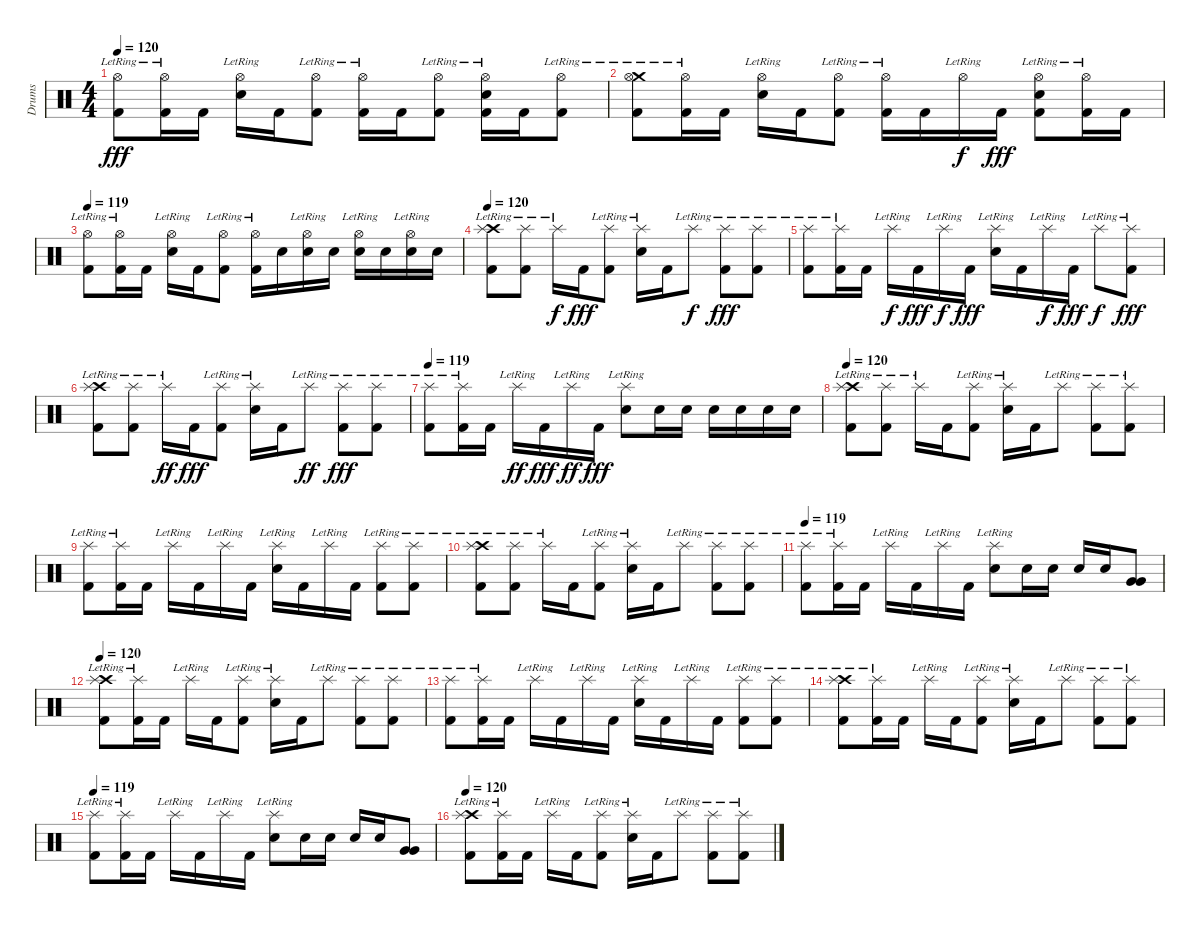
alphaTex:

\track ("Drums" "Drums") {instrument percussion}
\staff {score}
\articulation defaults
\ts (4 4)
\tempo 120
\clef neutral
\ks c
("Hi-Hat (open)"{lr} "Kick (hit) 2").8{dy fff} ("Hi-Hat (open)"{lr} "Kick (hit) 2").16 "Kick (hit) 2".16 ("Hi-Hat (open)"{lr} "Electric Snare (hit)").16 "Kick (hit) 2".16 ("Hi-Hat (open)"{lr} "Kick (hit) 2").8 ("Hi-Hat (open)"{lr} "Kick (hit) 2").16 "Kick (hit) 2".16 ("Hi-Hat (open)"{lr} "Kick (hit) 2").8 ("Hi-Hat (open)"{lr} "Electric Snare (hit)" "Kick (hit) 2").16 "Kick (hit) 2".16 ("Hi-Hat (open)"{lr} "Kick (hit) 2").8 |
("Crash medium (hit)"{lr} "Hi-Hat (open)"{lr} "Kick (hit) 2").8 ("Hi-Hat (open)"{lr} "Kick (hit) 2").16 "Kick (hit) 2".16 ("Hi-Hat (open)"{lr} "Electric Snare (hit)").16 "Kick (hit) 2".16 ("Hi-Hat (open)"{lr} "Kick (hit) 2").8 ("Hi-Hat (open)"{lr} "Kick (hit) 2").16 "Kick (hit) 2".16 "Hi-Hat (open)"{lr}.16{dy f} "Kick (hit) 2".16{dy fff} ("Hi-Hat (open)"{lr} "Electric Snare (hit)" "Kick (hit) 2").8 ("Hi-Hat (open)"{lr} "Kick (hit) 2").16 "Kick (hit) 2".16 |
\tempo 119
("Hi-Hat (open)"{lr} "Kick (hit) 2").8 ("Hi-Hat (open)"{lr} "Kick (hit) 2").16 "Kick (hit) 2".16 ("Hi-Hat (open)"{lr} "Electric Snare (hit)").16 "Kick (hit) 2".16 ("Hi-Hat (open)"{lr} "Kick (hit) 2").8 ("Hi-Hat (open)"{lr} "Kick (hit) 2").16 "Electric Snare (hit)".16 ("Hi-Hat (open)"{lr} "Electric Snare (hit)").16 "Electric Snare (hit)".16 ("Hi-Hat (open)"{lr} "Electric Snare (hit)").16 "Electric Snare (hit)".16 ("Hi-Hat (open)"{lr} "Electric Snare (hit)").16 "Electric Snare (hit)".16 |
\tempo 120
("Crash high (hit)"{lr} "Splash (hit)"{lr} "Kick (hit) 2").8 ("Splash (hit)"{lr} "Kick (hit) 2").8 "Splash (hit)"{lr}.16{dy f} "Kick (hit) 2".16{dy fff} ("Splash (hit)"{lr} "Kick (hit) 2").8 ("Splash (hit)"{lr} "Electric Snare (hit)").16 "Kick (hit) 2".16 "Splash (hit)"{lr}.8{dy f} ("Splash (hit)"{lr} "Kick (hit) 2").8{dy fff} ("Splash (hit)"{lr} "Kick (hit) 2").8 |
("Splash (hit)"{lr} "Kick (hit) 2").8 ("Splash (hit)"{lr} "Kick (hit) 2").16 "Kick (hit) 2".16 "Splash (hit)"{lr}.16{dy f} "Kick (hit) 2".16{dy fff} "Splash (hit)"{lr}.16{dy f} "Kick (hit) 2".16{dy fff} ("Splash (hit)"{lr} "Electric Snare (hit)").16 "Kick (hit) 2".16 "Splash (hit)"{lr}.16{dy f} "Kick (hit) 2".16{dy fff} "Splash (hit)"{lr}.8{dy f} ("Splash (hit)"{lr} "Kick (hit) 2").8{dy fff} |
("Crash high (hit)"{lr} "Splash (hit)"{lr} "Kick (hit) 2").8 ("Splash (hit)"{lr} "Kick (hit) 2").8 "Splash (hit)"{lr}.16{dy ff} "Kick (hit) 2".16{dy fff} ("Splash (hit)"{lr} "Kick (hit) 2").8 ("Splash (hit)"{lr} "Electric Snare (hit)").16 "Kick (hit) 2".16 "Splash (hit)"{lr}.8{dy ff} ("Splash (hit)"{lr} "Kick (hit) 2").8{dy fff} ("Splash (hit)"{lr} "Kick (hit) 2").8 |
\tempo 119
("Splash (hit)"{lr} "Kick (hit) 2").8 ("Splash (hit)"{lr} "Kick (hit) 2").16 "Kick (hit) 2".16 "Splash (hit)"{lr}.16{dy ff} "Kick (hit) 2".16{dy fff} "Splash (hit)"{lr}.16{dy ff} "Kick (hit) 2".16{dy fff} ("Splash (hit)"{lr} "Electric Snare (hit)").8 "Electric Snare (hit)".16 "Electric Snare (hit)".16 "Electric Snare (hit)".16 "Electric Snare (hit)".16 "Electric Snare (hit)".16 "Electric Snare (hit)".16 |
\tempo 120
("Crash high (hit)"{lr} "Splash (hit)"{lr} "Kick (hit) 2").8 ("Splash (hit)"{lr} "Kick (hit) 2").8 "Splash (hit)"{lr}.16 "Kick (hit) 2".16 ("Splash (hit)"{lr} "Kick (hit) 2").8 ("Splash (hit)"{lr} "Electric Snare (hit)").16 "Kick (hit) 2".16 "Splash (hit)"{lr}.8 ("Splash (hit)"{lr} "Kick (hit) 2").8 ("Splash (hit)"{lr} "Kick (hit) 2").8 |
("Splash (hit)"{lr} "Kick (hit) 2").8 ("Splash (hit)"{lr} "Kick (hit) 2").16 "Kick (hit) 2".16 "Splash (hit)"{lr}.16 "Kick (hit) 2".16 "Splash (hit)"{lr}.16 "Kick (hit) 2".16 ("Splash (hit)"{lr} "Electric Snare (hit)").16 "Kick (hit) 2".16 "Splash (hit)"{lr}.16 "Kick (hit) 2".16 ("Splash (hit)"{lr} "Kick (hit) 2").8 ("Splash (hit)"{lr} "Kick (hit) 2").8 |
("Crash high (hit)"{lr} "Splash (hit)"{lr} "Kick (hit) 2").8 ("Splash (hit)"{lr} "Kick (hit) 2").8 "Splash (hit)"{lr}.16 "Kick (hit) 2".16 ("Splash (hit)"{lr} "Kick (hit) 2").8 ("Splash (hit)"{lr} "Electric Snare (hit)").16 "Kick (hit) 2".16 "Splash (hit)"{lr}.8 ("Splash (hit)"{lr} "Kick (hit) 2").8 ("Splash (hit)"{lr} "Kick (hit) 2").8 |
\tempo 119
("Splash (hit)"{lr} "Kick (hit) 2").8 ("Splash (hit)"{lr} "Kick (hit) 2").16 "Kick (hit) 2".16 "Splash (hit)"{lr}.16 "Kick (hit) 2".16 "Splash (hit)"{lr}.16 "Kick (hit) 2".16 ("Splash (hit)"{lr} "Electric Snare (hit)").8 "Electric Snare (hit)".16 "Electric Snare (hit)".16 "Electric Snare (hit)".16 "Electric Snare (hit)".16 ("Very Low Tom (hit)" "Very Low Tom (hit)").8 |
\tempo 120
("Crash high (hit)"{lr} "Splash (hit)"{lr} "Kick (hit) 2").8 ("Splash (hit)"{lr} "Kick (hit) 2").16 "Kick (hit) 2".16 "Splash (hit)"{lr}.16 "Kick (hit) 2".16 ("Splash (hit)"{lr} "Kick (hit) 2").8 ("Splash (hit)"{lr} "Electric Snare (hit)").16 "Kick (hit) 2".16 "Splash (hit)"{lr}.8 ("Splash (hit)"{lr} "Kick (hit) 2").8 ("Splash (hit)"{lr} "Kick (hit) 2").8 |
("Splash (hit)"{lr} "Kick (hit) 2").8 ("Splash (hit)"{lr} "Kick (hit) 2").16 "Kick (hit) 2".16 "Splash (hit)"{lr}.16 "Kick (hit) 2".16 "Splash (hit)"{lr}.16 "Kick (hit) 2".16 ("Splash (hit)"{lr} "Electric Snare (hit)").16 "Kick (hit) 2".16 "Splash (hit)"{lr}.16 "Kick (hit) 2".16 ("Splash (hit)"{lr} "Kick (hit) 2").8 ("Splash (hit)"{lr} "Kick (hit) 2").8 |
("Crash high (hit)"{lr} "Splash (hit)"{lr} "Kick (hit) 2").8 ("Splash (hit)"{lr} "Kick (hit) 2").16 "Kick (hit) 2".16 "Splash (hit)"{lr}.16 "Kick (hit) 2".16 ("Splash (hit)"{lr} "Kick (hit) 2").8 ("Splash (hit)"{lr} "Electric Snare (hit)").16 "Kick (hit) 2".16 "Splash (hit)"{lr}.8 ("Splash (hit)"{lr} "Kick (hit) 2").8 ("Splash (hit)"{lr} "Kick (hit) 2").8 |
\tempo 119
("Splash (hit)"{lr} "Kick (hit) 2").8 ("Splash (hit)"{lr} "Kick (hit) 2").16 "Kick (hit) 2".16 "Splash (hit)"{lr}.16 "Kick (hit) 2".16 "Splash (hit)"{lr}.16 "Kick (hit) 2".16 ("Splash (hit)"{lr} "Electric Snare (hit)").8 "Electric Snare (hit)".16 "Electric Snare (hit)".16 "Electric Snare (hit)".16 "Electric Snare (hit)".16 ("Very Low Tom (hit)" "Very Low Tom (hit)").8 |
\tempo 120
("Crash high (hit)"{lr} "Splash (hit)"{lr} "Kick (hit) 2").8 ("Splash (hit)"{lr} "Kick (hit) 2").16 "Kick (hit) 2".16 "Splash (hit)"{lr}.16 "Kick (hit) 2".16 ("Splash (hit)"{lr} "Kick (hit) 2").8 ("Splash (hit)"{lr} "Electric Snare (hit)").16 "Kick (hit) 2".16 "Splash (hit)"{lr}.8 ("Splash (hit)"{lr} "Kick (hit) 2").8 ("Splash (hit)"{lr} "Kick (hit) 2").8
